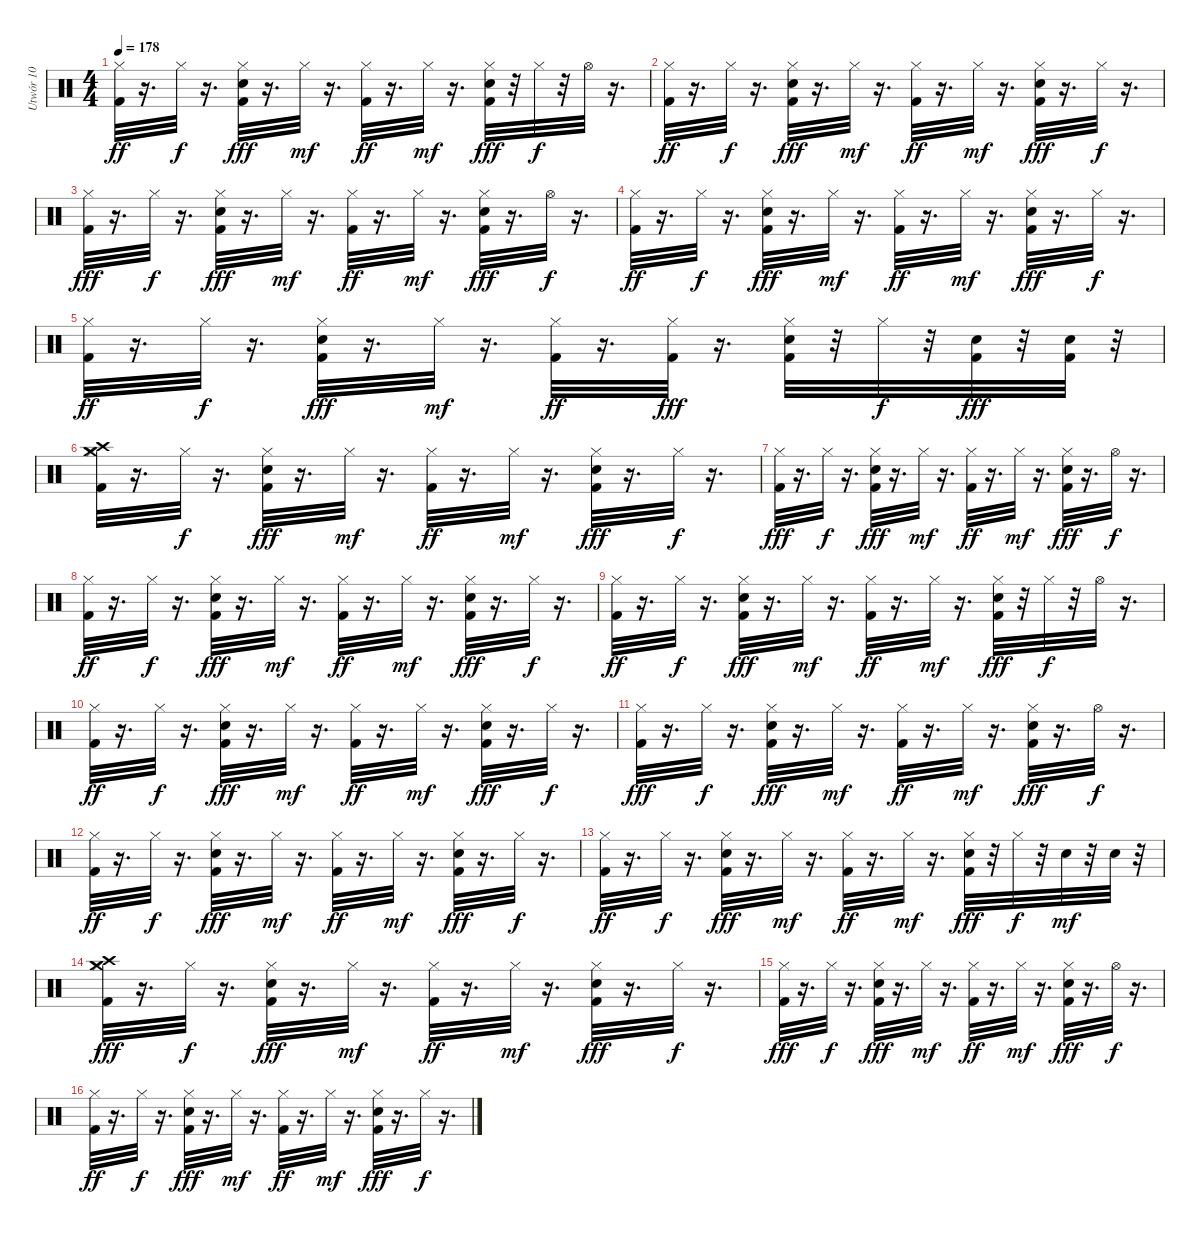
\track ("Utwór 10" "Utwór 10") {instrument percussion}
\staff {score}
\articulation defaults
\ts (4 4)
\tempo 178
\clef neutral
\ks c
("Kick (hit) 2" "Hi-Hat (closed)").32{dy ff} r.16{d} "Hi-Hat (closed)".32{dy f} r.16{d} ("Kick (hit) 2" "Electric Snare (hit)" "Hi-Hat (closed)").32{dy fff} r.16{d} "Hi-Hat (closed)".32{dy mf} r.16{d} ("Kick (hit) 2" "Hi-Hat (closed)").32{dy ff} r.16{d} "Hi-Hat (closed)".32{dy mf} r.16{d} ("Kick (hit) 2" "Electric Snare (hit)" "Hi-Hat (closed)").32{dy fff} r.32 "Hi-Hat (closed)".32{dy f} r.32 "Hi-Hat (open)".32 r.16{d} |
("Kick (hit) 2" "Hi-Hat (closed)").32{dy ff} r.16{d} "Hi-Hat (closed)".32{dy f} r.16{d} ("Kick (hit) 2" "Electric Snare (hit)" "Hi-Hat (closed)").32{dy fff} r.16{d} "Hi-Hat (closed)".32{dy mf} r.16{d} ("Kick (hit) 2" "Hi-Hat (closed)").32{dy ff} r.16{d} "Hi-Hat (closed)".32{dy mf} r.16{d} ("Kick (hit) 2" "Electric Snare (hit)" "Hi-Hat (closed)").32{dy fff} r.16{d} "Hi-Hat (closed)".32{dy f} r.16{d} |
("Kick (hit) 2" "Hi-Hat (closed)").32{dy fff} r.16{d} "Hi-Hat (closed)".32{dy f} r.16{d} ("Kick (hit) 2" "Electric Snare (hit)" "Hi-Hat (closed)").32{dy fff} r.16{d} "Hi-Hat (closed)".32{dy mf} r.16{d} ("Kick (hit) 2" "Hi-Hat (closed)").32{dy ff} r.16{d} "Hi-Hat (closed)".32{dy mf} r.16{d} ("Kick (hit) 2" "Electric Snare (hit)" "Hi-Hat (closed)").32{dy fff} r.16{d} "Hi-Hat (open)".32{dy f} r.16{d} |
("Kick (hit) 2" "Hi-Hat (closed)").32{dy ff} r.16{d} "Hi-Hat (closed)".32{dy f} r.16{d} ("Kick (hit) 2" "Electric Snare (hit)" "Hi-Hat (closed)").32{dy fff} r.16{d} "Hi-Hat (closed)".32{dy mf} r.16{d} ("Kick (hit) 2" "Hi-Hat (closed)").32{dy ff} r.16{d} "Hi-Hat (closed)".32{dy mf} r.16{d} ("Kick (hit) 2" "Electric Snare (hit)" "Hi-Hat (closed)").32{dy fff} r.16{d} "Hi-Hat (closed)".32{dy f} r.16{d} |
("Kick (hit) 2" "Hi-Hat (closed)").32{dy ff} r.16{d} "Hi-Hat (closed)".32{dy f} r.16{d} ("Kick (hit) 2" "Electric Snare (hit)" "Hi-Hat (closed)").32{dy fff} r.16{d} "Hi-Hat (closed)".32{dy mf} r.16{d} ("Kick (hit) 2" "Hi-Hat (closed)").32{dy ff} r.16{d} ("Hi-Hat (closed)" "Kick (hit) 2").32{dy fff} r.16{d} ("Kick (hit) 2" "Electric Snare (hit)" "Hi-Hat (closed)").32 r.32 "Hi-Hat (closed)".32{dy f} r.32 ("Electric Snare (hit)" "Kick (hit) 2").32{dy fff} r.32 ("Electric Snare (hit)" "Kick (hit) 2").32 r.32 |
("Crash medium (hit)" "Kick (hit) 2" "Hi-Hat (closed)" "Crash high (hit)").32 r.16{d} "Hi-Hat (closed)".32{dy f} r.16{d} ("Kick (hit) 2" "Electric Snare (hit)" "Hi-Hat (closed)").32{dy fff} r.16{d} "Hi-Hat (closed)".32{dy mf} r.16{d} ("Kick (hit) 2" "Hi-Hat (closed)").32{dy ff} r.16{d} "Hi-Hat (closed)".32{dy mf} r.16{d} ("Kick (hit) 2" "Electric Snare (hit)" "Hi-Hat (closed)").32{dy fff} r.16{d} "Hi-Hat (closed)".32{dy f} r.16{d} |
("Kick (hit) 2" "Hi-Hat (closed)").32{dy fff} r.16{d} "Hi-Hat (closed)".32{dy f} r.16{d} ("Kick (hit) 2" "Electric Snare (hit)" "Hi-Hat (closed)").32{dy fff} r.16{d} "Hi-Hat (closed)".32{dy mf} r.16{d} ("Kick (hit) 2" "Hi-Hat (closed)").32{dy ff} r.16{d} "Hi-Hat (closed)".32{dy mf} r.16{d} ("Kick (hit) 2" "Electric Snare (hit)" "Hi-Hat (closed)").32{dy fff} r.16{d} "Hi-Hat (open)".32{dy f} r.16{d} |
("Kick (hit) 2" "Hi-Hat (closed)").32{dy ff} r.16{d} "Hi-Hat (closed)".32{dy f} r.16{d} ("Kick (hit) 2" "Electric Snare (hit)" "Hi-Hat (closed)").32{dy fff} r.16{d} "Hi-Hat (closed)".32{dy mf} r.16{d} ("Kick (hit) 2" "Hi-Hat (closed)").32{dy ff} r.16{d} "Hi-Hat (closed)".32{dy mf} r.16{d} ("Kick (hit) 2" "Electric Snare (hit)" "Hi-Hat (closed)").32{dy fff} r.16{d} "Hi-Hat (closed)".32{dy f} r.16{d} |
("Kick (hit) 2" "Hi-Hat (closed)").32{dy ff} r.16{d} "Hi-Hat (closed)".32{dy f} r.16{d} ("Kick (hit) 2" "Electric Snare (hit)" "Hi-Hat (closed)").32{dy fff} r.16{d} "Hi-Hat (closed)".32{dy mf} r.16{d} ("Kick (hit) 2" "Hi-Hat (closed)").32{dy ff} r.16{d} "Hi-Hat (closed)".32{dy mf} r.16{d} ("Kick (hit) 2" "Electric Snare (hit)" "Hi-Hat (closed)").32{dy fff} r.32 "Hi-Hat (closed)".32{dy f} r.32 "Hi-Hat (open)".32 r.16{d} |
("Kick (hit) 2" "Hi-Hat (closed)").32{dy ff} r.16{d} "Hi-Hat (closed)".32{dy f} r.16{d} ("Kick (hit) 2" "Electric Snare (hit)" "Hi-Hat (closed)").32{dy fff} r.16{d} "Hi-Hat (closed)".32{dy mf} r.16{d} ("Kick (hit) 2" "Hi-Hat (closed)").32{dy ff} r.16{d} "Hi-Hat (closed)".32{dy mf} r.16{d} ("Kick (hit) 2" "Electric Snare (hit)" "Hi-Hat (closed)").32{dy fff} r.16{d} "Hi-Hat (closed)".32{dy f} r.16{d} |
("Kick (hit) 2" "Hi-Hat (closed)").32{dy fff} r.16{d} "Hi-Hat (closed)".32{dy f} r.16{d} ("Kick (hit) 2" "Electric Snare (hit)" "Hi-Hat (closed)").32{dy fff} r.16{d} "Hi-Hat (closed)".32{dy mf} r.16{d} ("Kick (hit) 2" "Hi-Hat (closed)").32{dy ff} r.16{d} "Hi-Hat (closed)".32{dy mf} r.16{d} ("Kick (hit) 2" "Electric Snare (hit)" "Hi-Hat (closed)").32{dy fff} r.16{d} "Hi-Hat (open)".32{dy f} r.16{d} |
("Kick (hit) 2" "Hi-Hat (closed)").32{dy ff} r.16{d} "Hi-Hat (closed)".32{dy f} r.16{d} ("Kick (hit) 2" "Electric Snare (hit)" "Hi-Hat (closed)").32{dy fff} r.16{d} "Hi-Hat (closed)".32{dy mf} r.16{d} ("Kick (hit) 2" "Hi-Hat (closed)").32{dy ff} r.16{d} "Hi-Hat (closed)".32{dy mf} r.16{d} ("Kick (hit) 2" "Electric Snare (hit)" "Hi-Hat (closed)").32{dy fff} r.16{d} "Hi-Hat (closed)".32{dy f} r.16{d} |
("Kick (hit) 2" "Hi-Hat (closed)").32{dy ff} r.16{d} "Hi-Hat (closed)".32{dy f} r.16{d} ("Kick (hit) 2" "Electric Snare (hit)" "Hi-Hat (closed)").32{dy fff} r.16{d} "Hi-Hat (closed)".32{dy mf} r.16{d} ("Kick (hit) 2" "Hi-Hat (closed)").32{dy ff} r.16{d} "Hi-Hat (closed)".32{dy mf} r.16{d} ("Kick (hit) 2" "Electric Snare (hit)" "Hi-Hat (closed)").32{dy fff} r.32 "Hi-Hat (closed)".32{dy f} r.32 "Electric Snare (hit)".32{dy mf} r.32 "Electric Snare (hit)".32 r.32 |
("Kick (hit) 2" "Hi-Hat (closed)" "Crash high (hit)" "Crash medium (hit)").32{dy fff} r.16{d} "Hi-Hat (closed)".32{dy f} r.16{d} ("Kick (hit) 2" "Electric Snare (hit)" "Hi-Hat (closed)").32{dy fff} r.16{d} "Hi-Hat (closed)".32{dy mf} r.16{d} ("Kick (hit) 2" "Hi-Hat (closed)").32{dy ff} r.16{d} "Hi-Hat (closed)".32{dy mf} r.16{d} ("Kick (hit) 2" "Electric Snare (hit)" "Hi-Hat (closed)").32{dy fff} r.16{d} "Hi-Hat (closed)".32{dy f} r.16{d} |
("Kick (hit) 2" "Hi-Hat (closed)").32{dy fff} r.16{d} "Hi-Hat (closed)".32{dy f} r.16{d} ("Kick (hit) 2" "Electric Snare (hit)" "Hi-Hat (closed)").32{dy fff} r.16{d} "Hi-Hat (closed)".32{dy mf} r.16{d} ("Kick (hit) 2" "Hi-Hat (closed)").32{dy ff} r.16{d} "Hi-Hat (closed)".32{dy mf} r.16{d} ("Kick (hit) 2" "Electric Snare (hit)" "Hi-Hat (closed)").32{dy fff} r.16{d} "Hi-Hat (open)".32{dy f} r.16{d} |
("Kick (hit) 2" "Hi-Hat (closed)").32{dy ff} r.16{d} "Hi-Hat (closed)".32{dy f} r.16{d} ("Kick (hit) 2" "Electric Snare (hit)" "Hi-Hat (closed)").32{dy fff} r.16{d} "Hi-Hat (closed)".32{dy mf} r.16{d} ("Kick (hit) 2" "Hi-Hat (closed)").32{dy ff} r.16{d} "Hi-Hat (closed)".32{dy mf} r.16{d} ("Kick (hit) 2" "Electric Snare (hit)" "Hi-Hat (closed)").32{dy fff} r.16{d} "Hi-Hat (closed)".32{dy f} r.16{d}
